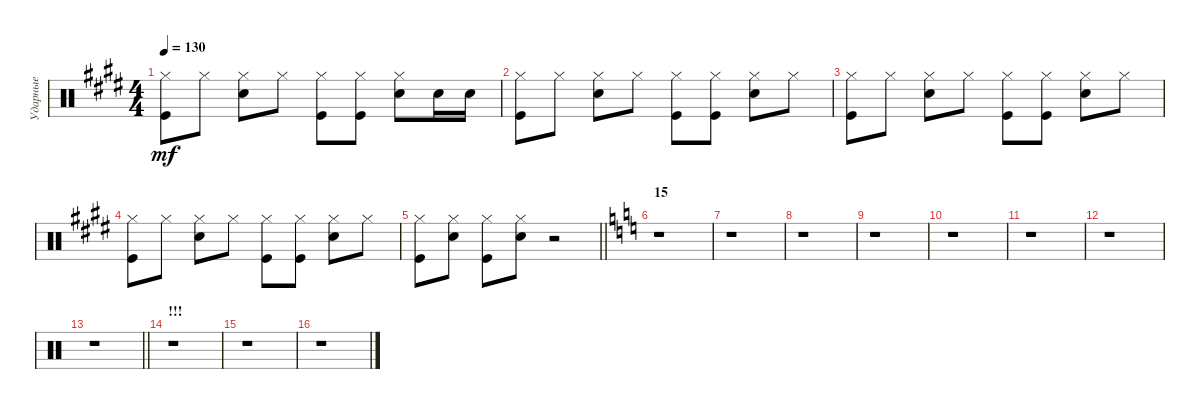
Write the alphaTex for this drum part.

\track ("Ударные" "Ударные") {instrument percussion}
\staff {score}
\articulation defaults
\ts (4 4)
\tempo 130
\clef neutral
\ks e
("Hi-Hat (closed)" "Kick (hit)").8{dy mf} "Hi-Hat (closed)".8 ("Hi-Hat (closed)" "Snare (hit) 2").8 "Hi-Hat (closed)".8 ("Hi-Hat (closed)" "Kick (hit)").8 ("Hi-Hat (closed)" "Kick (hit)").8 ("Hi-Hat (closed)" "Snare (hit) 2").8 "Snare (hit) 2".16 "Snare (hit) 2".16 |
("Hi-Hat (closed)" "Kick (hit)").8 "Hi-Hat (closed)".8 ("Hi-Hat (closed)" "Snare (hit) 2").8 "Hi-Hat (closed)".8 ("Hi-Hat (closed)" "Kick (hit)").8 ("Hi-Hat (closed)" "Kick (hit)").8 ("Hi-Hat (closed)" "Snare (hit) 2").8 "Hi-Hat (closed)".8 |
("Hi-Hat (closed)" "Kick (hit)").8 "Hi-Hat (closed)".8 ("Hi-Hat (closed)" "Snare (hit) 2").8 "Hi-Hat (closed)".8 ("Hi-Hat (closed)" "Kick (hit)").8 ("Hi-Hat (closed)" "Kick (hit)").8 ("Hi-Hat (closed)" "Snare (hit) 2").8 "Hi-Hat (closed)".8 |
("Hi-Hat (closed)" "Kick (hit)").8 "Hi-Hat (closed)".8 ("Hi-Hat (closed)" "Snare (hit) 2").8 "Hi-Hat (closed)".8 ("Hi-Hat (closed)" "Kick (hit)").8 ("Hi-Hat (closed)" "Kick (hit)").8 ("Hi-Hat (closed)" "Snare (hit) 2").8 "Hi-Hat (closed)".8 |
\barLineRight lightlight
("Hi-Hat (closed)" "Kick (hit)").8 ("Hi-Hat (closed)" "Snare (hit) 2").8 ("Hi-Hat (closed)" "Kick (hit)").8 ("Hi-Hat (closed)" "Snare (hit) 2").8 r.2 |
\section ("" "15")
\ks c
r.1 |
r.1 |
r.1 |
r.1 |
r.1 |
r.1 |
r.1 |
\barLineRight lightlight
r.1 |
\section ("" "!!!")
r.1 |
r.1 |
r.1
